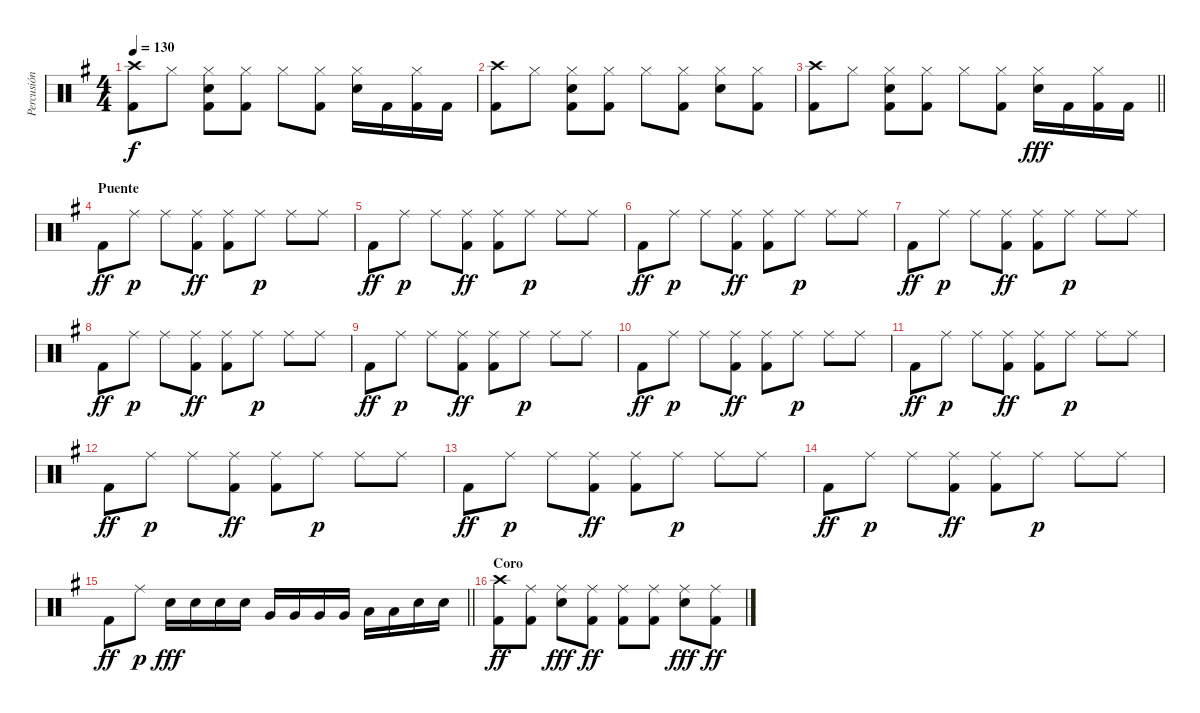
\track ("Percusión" "Percusión") {instrument percussion}
\staff {score}
\articulation defaults
\ts (4 4)
\tempo 130
\clef neutral
\ks g
("Crash high (hit)" "Kick (hit) 2").8{dy f} "Hi-Hat (closed)".8 ("Hi-Hat (closed)" "Snare (hit) 2" "Kick (hit) 2").8 ("Hi-Hat (closed)" "Kick (hit) 2").8 "Hi-Hat (closed)".8 ("Hi-Hat (closed)" "Kick (hit) 2").8 ("Hi-Hat (closed)" "Snare (hit) 2").16 "Kick (hit) 2".16 ("Hi-Hat (closed)" "Kick (hit) 2").16 "Kick (hit) 2".16 |
("Crash high (hit)" "Kick (hit) 2").8 "Hi-Hat (closed)".8 ("Hi-Hat (closed)" "Snare (hit) 2" "Kick (hit) 2").8 ("Hi-Hat (closed)" "Kick (hit) 2").8 "Hi-Hat (closed)".8 ("Hi-Hat (closed)" "Kick (hit) 2").8 ("Hi-Hat (closed)" "Snare (hit) 2").8 ("Hi-Hat (closed)" "Kick (hit) 2").8 |
\barLineRight lightlight
("Crash high (hit)" "Kick (hit) 2").8 "Hi-Hat (closed)".8 ("Hi-Hat (closed)" "Snare (hit) 2" "Kick (hit) 2").8 ("Hi-Hat (closed)" "Kick (hit) 2").8 "Hi-Hat (closed)".8 ("Hi-Hat (closed)" "Kick (hit) 2").8 ("Hi-Hat (closed)" "Snare (hit) 2").16{dy fff} "Kick (hit) 2".16 ("Hi-Hat (closed)" "Kick (hit) 2").16 "Kick (hit) 2".16 |
\section ("" "Puente")
"Kick (hit) 2".8{dy ff} "Ride (middle)".8{dy p} "Ride (middle)".8 ("Ride (middle)" "Kick (hit) 2").8{dy ff} ("Ride (middle)" "Kick (hit) 2").8 "Ride (middle)".8{dy p} "Ride (middle)".8 "Ride (middle)".8 |
"Kick (hit) 2".8{dy ff} "Ride (middle)".8{dy p} "Ride (middle)".8 ("Ride (middle)" "Kick (hit) 2").8{dy ff} ("Ride (middle)" "Kick (hit) 2").8 "Ride (middle)".8{dy p} "Ride (middle)".8 "Ride (middle)".8 |
"Kick (hit) 2".8{dy ff} "Ride (middle)".8{dy p} "Ride (middle)".8 ("Ride (middle)" "Kick (hit) 2").8{dy ff} ("Ride (middle)" "Kick (hit) 2").8 "Ride (middle)".8{dy p} "Ride (middle)".8 "Ride (middle)".8 |
"Kick (hit) 2".8{dy ff} "Ride (middle)".8{dy p} "Ride (middle)".8 ("Ride (middle)" "Kick (hit) 2").8{dy ff} ("Ride (middle)" "Kick (hit) 2").8 "Ride (middle)".8{dy p} "Ride (middle)".8 "Ride (middle)".8 |
"Kick (hit) 2".8{dy ff} "Ride (middle)".8{dy p} "Ride (middle)".8 ("Ride (middle)" "Kick (hit) 2").8{dy ff} ("Ride (middle)" "Kick (hit) 2").8 "Ride (middle)".8{dy p} "Ride (middle)".8 "Ride (middle)".8 |
"Kick (hit) 2".8{dy ff} "Ride (middle)".8{dy p} "Ride (middle)".8 ("Ride (middle)" "Kick (hit) 2").8{dy ff} ("Ride (middle)" "Kick (hit) 2").8 "Ride (middle)".8{dy p} "Ride (middle)".8 "Ride (middle)".8 |
"Kick (hit) 2".8{dy ff} "Ride (middle)".8{dy p} "Ride (middle)".8 ("Ride (middle)" "Kick (hit) 2").8{dy ff} ("Ride (middle)" "Kick (hit) 2").8 "Ride (middle)".8{dy p} "Ride (middle)".8 "Ride (middle)".8 |
"Kick (hit) 2".8{dy ff} "Ride (middle)".8{dy p} "Ride (middle)".8 ("Ride (middle)" "Kick (hit) 2").8{dy ff} ("Ride (middle)" "Kick (hit) 2").8 "Ride (middle)".8{dy p} "Ride (middle)".8 "Ride (middle)".8 |
"Kick (hit) 2".8{dy ff} "Ride (middle)".8{dy p} "Ride (middle)".8 ("Ride (middle)" "Kick (hit) 2").8{dy ff} ("Ride (middle)" "Kick (hit) 2").8 "Ride (middle)".8{dy p} "Ride (middle)".8 "Ride (middle)".8 |
"Kick (hit) 2".8{dy ff} "Ride (middle)".8{dy p} "Ride (middle)".8 ("Ride (middle)" "Kick (hit) 2").8{dy ff} ("Ride (middle)" "Kick (hit) 2").8 "Ride (middle)".8{dy p} "Ride (middle)".8 "Ride (middle)".8 |
"Kick (hit) 2".8{dy ff} "Ride (middle)".8{dy p} "Ride (middle)".8 ("Ride (middle)" "Kick (hit) 2").8{dy ff} ("Ride (middle)" "Kick (hit) 2").8 "Ride (middle)".8{dy p} "Ride (middle)".8 "Ride (middle)".8 |
\barLineRight lightlight "Kick (hit) 2".8{dy ff} "Ride (middle)".8{dy p} "Snare (hit) 2".16{dy fff} "Snare (hit) 2".16 "Snare (hit) 2".16 "Snare (hit) 2".16 "Very Low Tom (hit)".16 "Very Low Tom (hit)".16 "Very Low Tom (hit)".16 "Very Low Tom (hit)".16 "Low Tom (hit)".16 "Low Tom (hit)".16 "Snare (hit) 2".16 "Snare (hit) 2".16
|
\section ("" "Coro")
("Crash high (hit)" "Kick (hit) 2").8{dy ff volume 16} ("Ride (middle)" "Kick (hit) 2").8 ("Ride (middle)" "Snare (hit) 2").8{dy fff} ("Ride (middle)" "Kick (hit) 2").8{dy ff} ("Ride (middle)" "Kick (hit) 2").8 ("Ride (middle)" "Kick (hit) 2").8 ("Ride (middle)" "Snare (hit) 2").8{dy fff} ("Ride (middle)" "Kick (hit) 2").8{dy ff}
